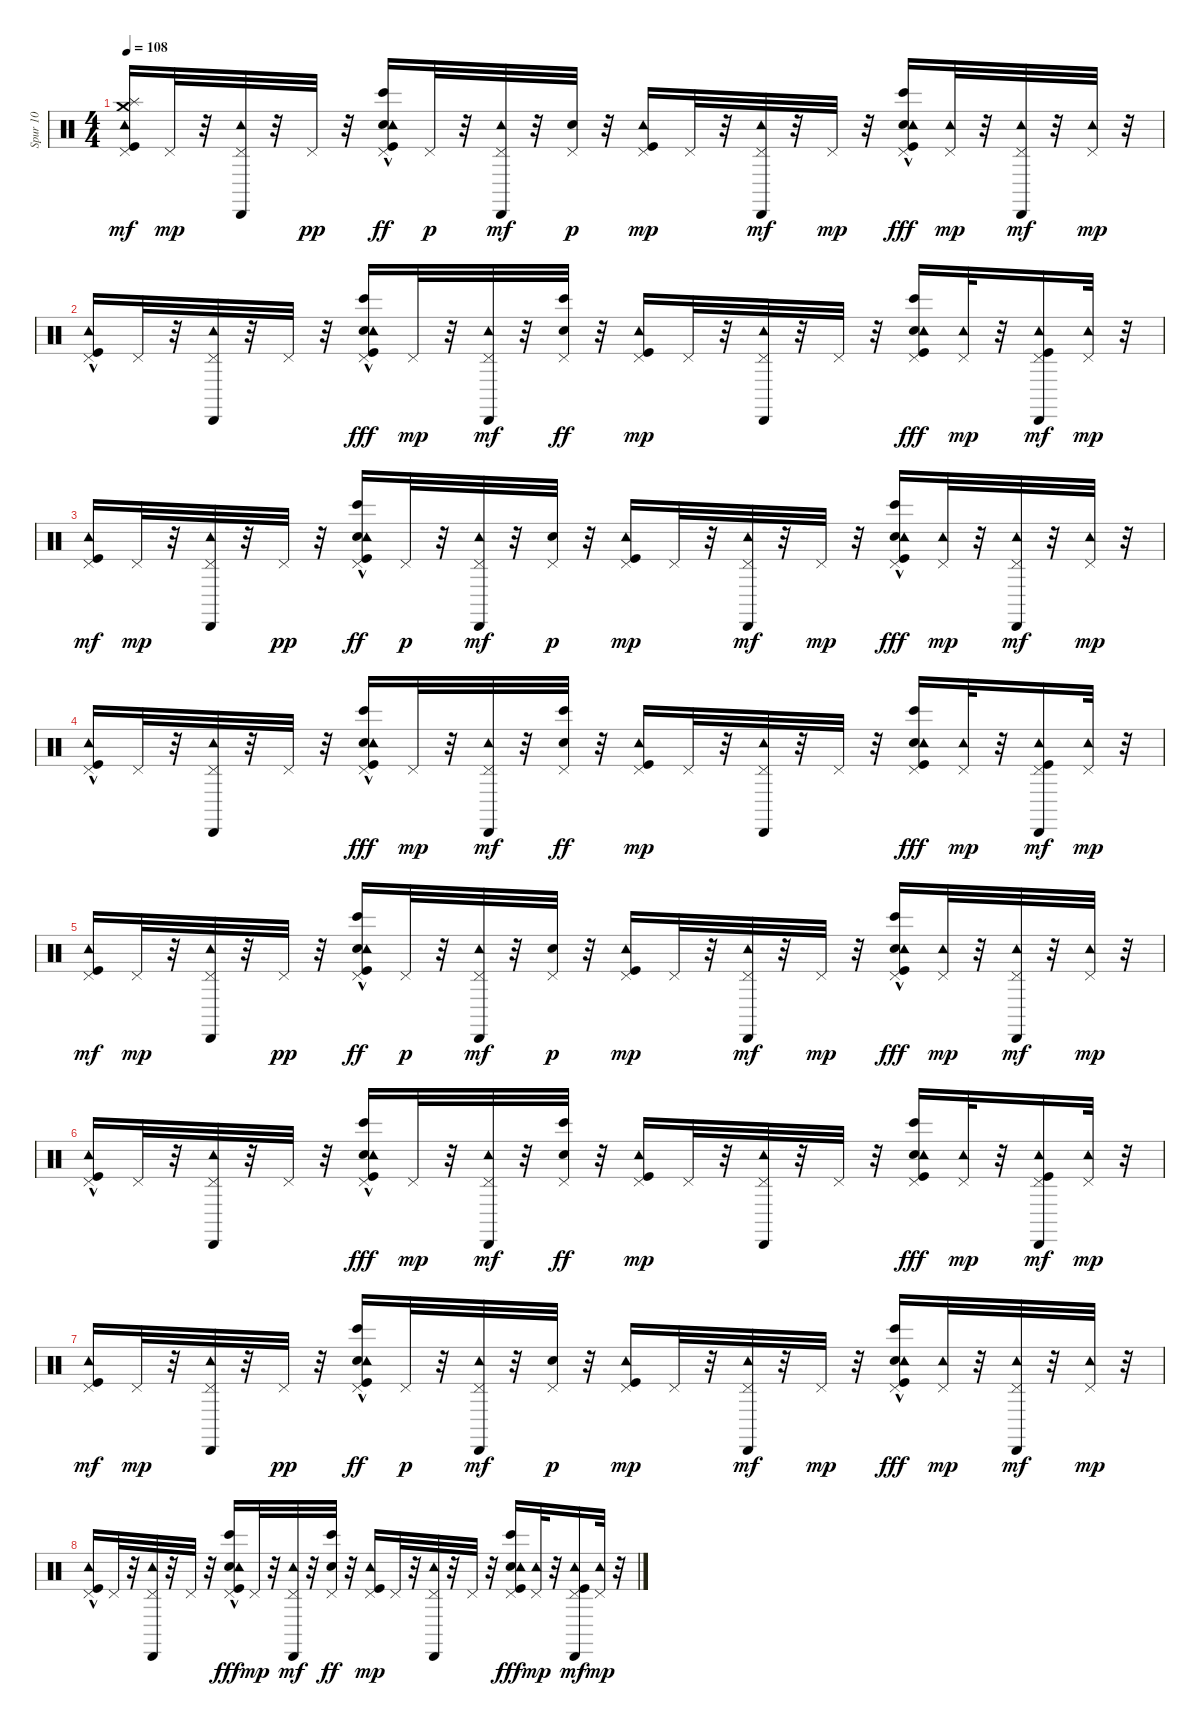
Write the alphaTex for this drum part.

\track ("Spur 10" "Spur 10") {instrument percussion}
\staff {score}
\articulation defaults
\ts (4 4)
\tempo 108
\clef neutral
\ks c
("Kick (hit)" "Tambourine (hit)" "Pedal Hi-Hat (hit)" "Crash medium (hit)" "Splash (hit)").16{dy mf} "Pedal Hi-Hat (hit)".32{dy mp} r.32 ("Tambourine (hit)" "Pedal Hi-Hat (hit)" "Cabasa (hit)").32 r.32 "Pedal Hi-Hat (hit)".32{dy pp} r.32 ("Kick (hit)"{hac} "Snare (hit) 2"{hac} "Tambourine (hit)" "Pedal Hi-Hat (hit)" "Bongo High (hit)").16{dy ff} "Pedal Hi-Hat (hit)".32{dy p} r.32 ("Tambourine (hit)" "Pedal Hi-Hat (hit)" "Cabasa (hit)").32{dy mf} r.32 ("Snare (hit) 2" "Pedal Hi-Hat (hit)").32{dy p} r.32 ("Kick (hit)" "Tambourine (hit)" "Pedal Hi-Hat (hit)").16{dy mp} "Pedal Hi-Hat (hit)".32 r.32 ("Tambourine (hit)" "Pedal Hi-Hat (hit)" "Cabasa (hit)").32{dy mf} r.32 "Pedal Hi-Hat (hit)".32{dy mp} r.32 ("Snare (hit) 2" "Kick (hit)"{hac} "Tambourine (hit)" "Pedal Hi-Hat (hit)" "Bongo High (hit)").16{dy fff} ("Tambourine (hit)" "Pedal Hi-Hat (hit)").32{dy mp} r.32 ("Tambourine (hit)" "Pedal Hi-Hat (hit)" "Cabasa (hit)").32{dy mf} r.32 ("Tambourine (hit)" "Pedal Hi-Hat (hit)").32{dy mp} r.32 |
("Kick (hit)"{hac} "Tambourine (hit)" "Pedal Hi-Hat (hit)").16 "Pedal Hi-Hat (hit)".32 r.32 ("Tambourine (hit)" "Pedal Hi-Hat (hit)" "Cabasa (hit)").32 r.32 "Pedal Hi-Hat (hit)".32 r.32 ("Kick (hit)"{hac} "Snare (hit) 2" "Tambourine (hit)" "Pedal Hi-Hat (hit)" "Bongo High (hit)"{hac}).16{dy fff} "Pedal Hi-Hat (hit)".32{dy mp} r.32 ("Tambourine (hit)" "Pedal Hi-Hat (hit)" "Cabasa (hit)").32{dy mf} r.32 ("Snare (hit) 2" "Pedal Hi-Hat (hit)" "Bongo High (hit)").32{dy ff} r.32 ("Kick (hit)" "Tambourine (hit)" "Pedal Hi-Hat (hit)").16{dy mp} "Pedal Hi-Hat (hit)".32 r.32 ("Tambourine (hit)" "Pedal Hi-Hat (hit)" "Cabasa (hit)").32 r.32 "Pedal Hi-Hat (hit)".32 r.32 ("Snare (hit) 2" "Kick (hit)" "Tambourine (hit)" "Pedal Hi-Hat (hit)" "Bongo High (hit)").16{dy fff} ("Tambourine (hit)" "Pedal Hi-Hat (hit)").32{dy mp} r.32 ("Kick (hit)" "Tambourine (hit)" "Pedal Hi-Hat (hit)" "Cabasa (hit)").16{dy mf} ("Tambourine (hit)" "Pedal Hi-Hat (hit)").32{dy mp} r.32 |
("Kick (hit)" "Tambourine (hit)" "Pedal Hi-Hat (hit)").16{dy mf} "Pedal Hi-Hat (hit)".32{dy mp} r.32 ("Tambourine (hit)" "Pedal Hi-Hat (hit)" "Cabasa (hit)").32 r.32 "Pedal Hi-Hat (hit)".32{dy pp} r.32 ("Kick (hit)"{hac} "Snare (hit) 2"{hac} "Tambourine (hit)" "Pedal Hi-Hat (hit)" "Bongo High (hit)").16{dy ff} "Pedal Hi-Hat (hit)".32{dy p} r.32 ("Tambourine (hit)" "Pedal Hi-Hat (hit)" "Cabasa (hit)").32{dy mf} r.32 ("Snare (hit) 2" "Pedal Hi-Hat (hit)").32{dy p} r.32 ("Kick (hit)" "Tambourine (hit)" "Pedal Hi-Hat (hit)").16{dy mp} "Pedal Hi-Hat (hit)".32 r.32 ("Tambourine (hit)" "Pedal Hi-Hat (hit)" "Cabasa (hit)").32{dy mf} r.32 "Pedal Hi-Hat (hit)".32{dy mp} r.32 ("Snare (hit) 2" "Kick (hit)"{hac} "Tambourine (hit)" "Pedal Hi-Hat (hit)" "Bongo High (hit)").16{dy fff} ("Tambourine (hit)" "Pedal Hi-Hat (hit)").32{dy mp} r.32 ("Tambourine (hit)" "Pedal Hi-Hat (hit)" "Cabasa (hit)").32{dy mf} r.32 ("Tambourine (hit)" "Pedal Hi-Hat (hit)").32{dy mp} r.32 |
("Kick (hit)"{hac} "Tambourine (hit)" "Pedal Hi-Hat (hit)").16 "Pedal Hi-Hat (hit)".32 r.32 ("Tambourine (hit)" "Pedal Hi-Hat (hit)" "Cabasa (hit)").32 r.32 "Pedal Hi-Hat (hit)".32 r.32 ("Kick (hit)"{hac} "Snare (hit) 2" "Tambourine (hit)" "Pedal Hi-Hat (hit)" "Bongo High (hit)"{hac}).16{dy fff} "Pedal Hi-Hat (hit)".32{dy mp} r.32 ("Tambourine (hit)" "Pedal Hi-Hat (hit)" "Cabasa (hit)").32{dy mf} r.32 ("Snare (hit) 2" "Pedal Hi-Hat (hit)" "Bongo High (hit)").32{dy ff} r.32 ("Kick (hit)" "Tambourine (hit)" "Pedal Hi-Hat (hit)").16{dy mp} "Pedal Hi-Hat (hit)".32 r.32 ("Tambourine (hit)" "Pedal Hi-Hat (hit)" "Cabasa (hit)").32 r.32 "Pedal Hi-Hat (hit)".32 r.32 ("Snare (hit) 2" "Kick (hit)" "Tambourine (hit)" "Pedal Hi-Hat (hit)" "Bongo High (hit)").16{dy fff} ("Tambourine (hit)" "Pedal Hi-Hat (hit)").32{dy mp} r.32 ("Kick (hit)" "Tambourine (hit)" "Pedal Hi-Hat (hit)" "Cabasa (hit)").16{dy mf} ("Tambourine (hit)" "Pedal Hi-Hat (hit)").32{dy mp} r.32 |
("Kick (hit)" "Tambourine (hit)" "Pedal Hi-Hat (hit)").16{dy mf} "Pedal Hi-Hat (hit)".32{dy mp} r.32 ("Tambourine (hit)" "Pedal Hi-Hat (hit)" "Cabasa (hit)").32 r.32 "Pedal Hi-Hat (hit)".32{dy pp} r.32 ("Kick (hit)"{hac} "Snare (hit) 2"{hac} "Tambourine (hit)" "Pedal Hi-Hat (hit)" "Bongo High (hit)").16{dy ff} "Pedal Hi-Hat (hit)".32{dy p} r.32 ("Tambourine (hit)" "Pedal Hi-Hat (hit)" "Cabasa (hit)").32{dy mf} r.32 ("Snare (hit) 2" "Pedal Hi-Hat (hit)").32{dy p} r.32 ("Kick (hit)" "Tambourine (hit)" "Pedal Hi-Hat (hit)").16{dy mp} "Pedal Hi-Hat (hit)".32 r.32 ("Tambourine (hit)" "Pedal Hi-Hat (hit)" "Cabasa (hit)").32{dy mf} r.32 "Pedal Hi-Hat (hit)".32{dy mp} r.32 ("Snare (hit) 2" "Kick (hit)"{hac} "Tambourine (hit)" "Pedal Hi-Hat (hit)" "Bongo High (hit)").16{dy fff} ("Tambourine (hit)" "Pedal Hi-Hat (hit)").32{dy mp} r.32 ("Tambourine (hit)" "Pedal Hi-Hat (hit)" "Cabasa (hit)").32{dy mf} r.32 ("Tambourine (hit)" "Pedal Hi-Hat (hit)").32{dy mp} r.32 |
("Kick (hit)"{hac} "Tambourine (hit)" "Pedal Hi-Hat (hit)").16 "Pedal Hi-Hat (hit)".32 r.32 ("Tambourine (hit)" "Pedal Hi-Hat (hit)" "Cabasa (hit)").32 r.32 "Pedal Hi-Hat (hit)".32 r.32 ("Kick (hit)"{hac} "Snare (hit) 2" "Tambourine (hit)" "Pedal Hi-Hat (hit)" "Bongo High (hit)"{hac}).16{dy fff} "Pedal Hi-Hat (hit)".32{dy mp} r.32 ("Tambourine (hit)" "Pedal Hi-Hat (hit)" "Cabasa (hit)").32{dy mf} r.32 ("Snare (hit) 2" "Pedal Hi-Hat (hit)" "Bongo High (hit)").32{dy ff} r.32 ("Kick (hit)" "Tambourine (hit)" "Pedal Hi-Hat (hit)").16{dy mp} "Pedal Hi-Hat (hit)".32 r.32 ("Tambourine (hit)" "Pedal Hi-Hat (hit)" "Cabasa (hit)").32 r.32 "Pedal Hi-Hat (hit)".32 r.32 ("Snare (hit) 2" "Kick (hit)" "Tambourine (hit)" "Pedal Hi-Hat (hit)" "Bongo High (hit)").16{dy fff} ("Tambourine (hit)" "Pedal Hi-Hat (hit)").32{dy mp} r.32 ("Kick (hit)" "Tambourine (hit)" "Pedal Hi-Hat (hit)" "Cabasa (hit)").16{dy mf} ("Tambourine (hit)" "Pedal Hi-Hat (hit)").32{dy mp} r.32 |
("Kick (hit)" "Tambourine (hit)" "Pedal Hi-Hat (hit)").16{dy mf} "Pedal Hi-Hat (hit)".32{dy mp} r.32 ("Tambourine (hit)" "Pedal Hi-Hat (hit)" "Cabasa (hit)").32 r.32 "Pedal Hi-Hat (hit)".32{dy pp} r.32 ("Kick (hit)"{hac} "Snare (hit) 2"{hac} "Tambourine (hit)" "Pedal Hi-Hat (hit)" "Bongo High (hit)").16{dy ff} "Pedal Hi-Hat (hit)".32{dy p} r.32 ("Tambourine (hit)" "Pedal Hi-Hat (hit)" "Cabasa (hit)").32{dy mf} r.32 ("Snare (hit) 2" "Pedal Hi-Hat (hit)").32{dy p} r.32 ("Kick (hit)" "Tambourine (hit)" "Pedal Hi-Hat (hit)").16{dy mp} "Pedal Hi-Hat (hit)".32 r.32 ("Tambourine (hit)" "Pedal Hi-Hat (hit)" "Cabasa (hit)").32{dy mf} r.32 "Pedal Hi-Hat (hit)".32{dy mp} r.32 ("Snare (hit) 2" "Kick (hit)"{hac} "Tambourine (hit)" "Pedal Hi-Hat (hit)" "Bongo High (hit)").16{dy fff} ("Tambourine (hit)" "Pedal Hi-Hat (hit)").32{dy mp} r.32 ("Tambourine (hit)" "Pedal Hi-Hat (hit)" "Cabasa (hit)").32{dy mf} r.32 ("Tambourine (hit)" "Pedal Hi-Hat (hit)").32{dy mp} r.32 |
("Kick (hit)"{hac} "Tambourine (hit)" "Pedal Hi-Hat (hit)").16 "Pedal Hi-Hat (hit)".32 r.32 ("Tambourine (hit)" "Pedal Hi-Hat (hit)" "Cabasa (hit)").32 r.32 "Pedal Hi-Hat (hit)".32 r.32 ("Kick (hit)"{hac} "Snare (hit) 2" "Tambourine (hit)" "Pedal Hi-Hat (hit)" "Bongo High (hit)"{hac}).16{dy fff} "Pedal Hi-Hat (hit)".32{dy mp} r.32 ("Tambourine (hit)" "Pedal Hi-Hat (hit)" "Cabasa (hit)").32{dy mf} r.32 ("Snare (hit) 2" "Pedal Hi-Hat (hit)" "Bongo High (hit)").32{dy ff} r.32 ("Kick (hit)" "Tambourine (hit)" "Pedal Hi-Hat (hit)").16{dy mp} "Pedal Hi-Hat (hit)".32 r.32 ("Tambourine (hit)" "Pedal Hi-Hat (hit)" "Cabasa (hit)").32 r.32 "Pedal Hi-Hat (hit)".32 r.32 ("Snare (hit) 2" "Kick (hit)" "Tambourine (hit)" "Pedal Hi-Hat (hit)" "Bongo High (hit)").16{dy fff} ("Tambourine (hit)" "Pedal Hi-Hat (hit)").32{dy mp} r.32 ("Kick (hit)" "Tambourine (hit)" "Pedal Hi-Hat (hit)" "Cabasa (hit)").16{dy mf} ("Tambourine (hit)" "Pedal Hi-Hat (hit)").32{dy mp} r.32
